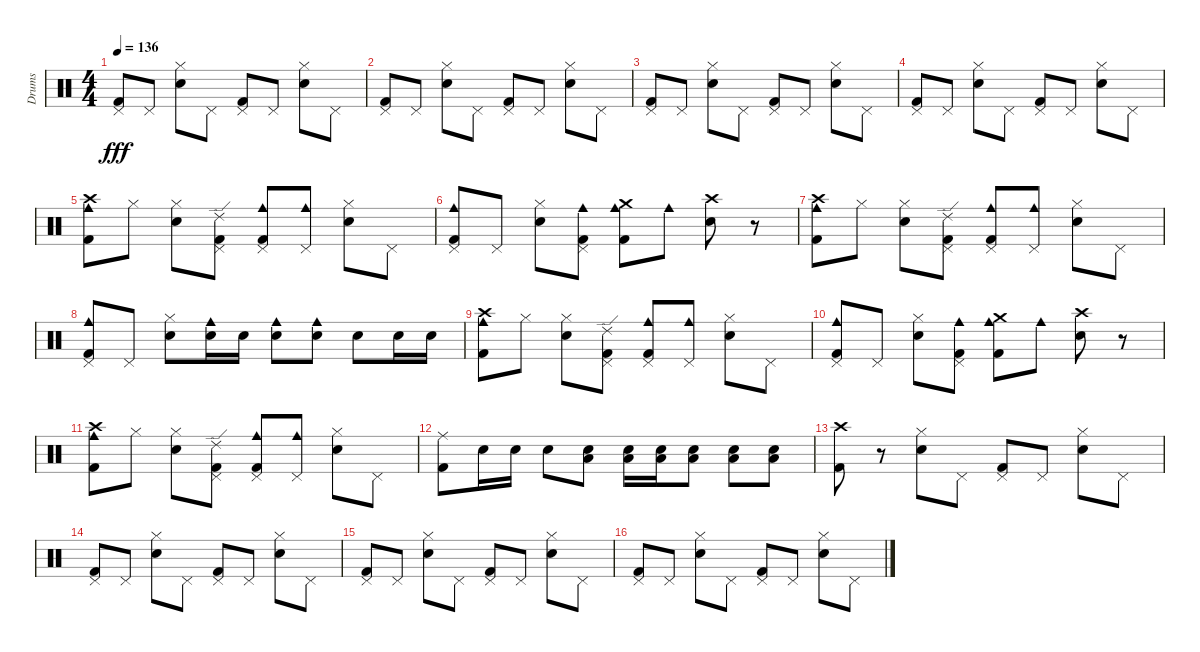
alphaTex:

\track ("Drums" "Drums") {instrument percussion}
\staff {score}
\articulation defaults
\ts (4 4)
\tempo 136
\clef neutral
\ks c
("Pedal Hi-Hat (hit)" "Kick (hit) 2").8{dy fff} "Pedal Hi-Hat (hit)".8 ("Hi-Hat (closed)" "Snare (hit) 2").8 "Pedal Hi-Hat (hit)".8 ("Pedal Hi-Hat (hit)" "Kick (hit) 2").8 "Pedal Hi-Hat (hit)".8 ("Hi-Hat (closed)" "Snare (hit) 2").8 "Pedal Hi-Hat (hit)".8 |
("Pedal Hi-Hat (hit)" "Kick (hit) 2").8 "Pedal Hi-Hat (hit)".8 ("Hi-Hat (closed)" "Snare (hit) 2").8 "Pedal Hi-Hat (hit)".8 ("Pedal Hi-Hat (hit)" "Kick (hit) 2").8 "Pedal Hi-Hat (hit)".8 ("Hi-Hat (closed)" "Snare (hit) 2").8 "Pedal Hi-Hat (hit)".8 |
("Pedal Hi-Hat (hit)" "Kick (hit) 2").8 "Pedal Hi-Hat (hit)".8 ("Hi-Hat (closed)" "Snare (hit) 2").8 "Pedal Hi-Hat (hit)".8 ("Pedal Hi-Hat (hit)" "Kick (hit) 2").8 "Pedal Hi-Hat (hit)".8 ("Hi-Hat (closed)" "Snare (hit) 2").8 "Pedal Hi-Hat (hit)".8 |
("Pedal Hi-Hat (hit)" "Kick (hit) 2").8 "Pedal Hi-Hat (hit)".8 ("Hi-Hat (closed)" "Snare (hit) 2").8 "Pedal Hi-Hat (hit)".8 ("Pedal Hi-Hat (hit)" "Kick (hit) 2").8 "Pedal Hi-Hat (hit)".8 ("Hi-Hat (closed)" "Snare (hit) 2").8 "Pedal Hi-Hat (hit)".8 |
("Cowbell medium (hit)" "Crash high (hit)" "Kick (hit) 2").8 "Hi-Hat (closed)".8 ("Hi-Hat (closed)" "Snare (hit) 2").8 ("Ride (edge) 2" "Pedal Hi-Hat (hit)" "Kick (hit) 2").8 ("Cowbell medium (hit)" "Pedal Hi-Hat (hit)" "Kick (hit) 2").8 ("Cowbell medium (hit)" "Pedal Hi-Hat (hit)").8 ("Hi-Hat (closed)" "Snare (hit) 2").8 "Pedal Hi-Hat (hit)".8 |
("Cowbell medium (hit)" "Pedal Hi-Hat (hit)" "Kick (hit) 2").8 "Pedal Hi-Hat (hit)".8 ("Hi-Hat (closed)" "Snare (hit) 2").8 ("Cowbell medium (hit)" "Pedal Hi-Hat (hit)" "Kick (hit) 2").8 ("Crash medium (hit)" "Cowbell medium (hit)" "Kick (hit) 2").8 "Cowbell medium (hit)".8 ("Crash high (hit)" "Snare (hit) 2").8 r.8 |
("Cowbell medium (hit)" "Crash high (hit)" "Kick (hit) 2").8 "Hi-Hat (closed)".8 ("Hi-Hat (closed)" "Snare (hit) 2").8 ("Ride (edge) 2" "Pedal Hi-Hat (hit)" "Kick (hit) 2").8 ("Cowbell medium (hit)" "Pedal Hi-Hat (hit)" "Kick (hit) 2").8 ("Cowbell medium (hit)" "Pedal Hi-Hat (hit)").8 ("Hi-Hat (closed)" "Snare (hit) 2").8 "Pedal Hi-Hat (hit)".8 |
("Cowbell medium (hit)" "Pedal Hi-Hat (hit)" "Kick (hit) 2").8 "Pedal Hi-Hat (hit)".8 ("Hi-Hat (closed)" "Snare (hit) 2").8 ("Cowbell medium (hit)" "Snare (hit) 2").16 "Snare (hit) 2".16 ("Cowbell medium (hit)" "Snare (hit) 2").8 ("Cowbell medium (hit)" "Snare (hit) 2").8 "Snare (hit) 2".8 "Snare (hit) 2".16 "Snare (hit) 2".16 |
("Cowbell medium (hit)" "Crash high (hit)" "Kick (hit) 2").8 "Hi-Hat (closed)".8 ("Hi-Hat (closed)" "Snare (hit) 2").8 ("Ride (edge) 2" "Pedal Hi-Hat (hit)" "Kick (hit) 2").8 ("Cowbell medium (hit)" "Pedal Hi-Hat (hit)" "Kick (hit) 2").8 ("Cowbell medium (hit)" "Pedal Hi-Hat (hit)").8 ("Hi-Hat (closed)" "Snare (hit) 2").8 "Pedal Hi-Hat (hit)".8 |
("Cowbell medium (hit)" "Pedal Hi-Hat (hit)" "Kick (hit) 2").8 "Pedal Hi-Hat (hit)".8 ("Hi-Hat (closed)" "Snare (hit) 2").8 ("Cowbell medium (hit)" "Pedal Hi-Hat (hit)" "Kick (hit) 2").8 ("Crash medium (hit)" "Cowbell medium (hit)" "Kick (hit) 2").8 "Cowbell medium (hit)".8 ("Crash high (hit)" "Snare (hit) 2").8 r.8 |
("Cowbell medium (hit)" "Crash high (hit)" "Kick (hit) 2").8 "Hi-Hat (closed)".8 ("Hi-Hat (closed)" "Snare (hit) 2").8 ("Ride (edge) 2" "Pedal Hi-Hat (hit)" "Kick (hit) 2").8 ("Cowbell medium (hit)" "Pedal Hi-Hat (hit)" "Kick (hit) 2").8 ("Cowbell medium (hit)" "Pedal Hi-Hat (hit)").8 ("Hi-Hat (closed)" "Snare (hit) 2").8 "Pedal Hi-Hat (hit)".8 |
("Ride (middle)" "Kick (hit) 2").8 "Snare (hit) 2".16 "Snare (hit) 2".16 "Snare (hit) 2".8 ("Low Floor Tom (hit)" "Snare (hit) 2").8 ("Low Floor Tom (hit)" "Snare (hit) 2").16 ("Low Floor Tom (hit)" "Snare (hit) 2").16 ("Low Floor Tom (hit)" "Snare (hit) 2").8 ("Low Floor Tom (hit)" "Snare (hit) 2").8 ("Low Floor Tom (hit)" "Snare (hit) 2").8 |
("Crash high (hit)" "Kick (hit) 2").8 r.8 ("Hi-Hat (closed)" "Snare (hit) 2").8 "Pedal Hi-Hat (hit)".8 ("Pedal Hi-Hat (hit)" "Kick (hit) 2").8 "Pedal Hi-Hat (hit)".8 ("Hi-Hat (closed)" "Snare (hit) 2").8 "Pedal Hi-Hat (hit)".8 |
("Pedal Hi-Hat (hit)" "Kick (hit) 2").8 "Pedal Hi-Hat (hit)".8 ("Hi-Hat (closed)" "Snare (hit) 2").8 "Pedal Hi-Hat (hit)".8 ("Pedal Hi-Hat (hit)" "Kick (hit) 2").8 "Pedal Hi-Hat (hit)".8 ("Hi-Hat (closed)" "Snare (hit) 2").8 "Pedal Hi-Hat (hit)".8 |
("Pedal Hi-Hat (hit)" "Kick (hit) 2").8 "Pedal Hi-Hat (hit)".8 ("Hi-Hat (closed)" "Snare (hit) 2").8 "Pedal Hi-Hat (hit)".8 ("Pedal Hi-Hat (hit)" "Kick (hit) 2").8 "Pedal Hi-Hat (hit)".8 ("Hi-Hat (closed)" "Snare (hit) 2").8 "Pedal Hi-Hat (hit)".8 |
("Pedal Hi-Hat (hit)" "Kick (hit) 2").8 "Pedal Hi-Hat (hit)".8 ("Hi-Hat (closed)" "Snare (hit) 2").8 "Pedal Hi-Hat (hit)".8 ("Pedal Hi-Hat (hit)" "Kick (hit) 2").8 "Pedal Hi-Hat (hit)".8 ("Hi-Hat (closed)" "Snare (hit) 2").8 "Pedal Hi-Hat (hit)".8
